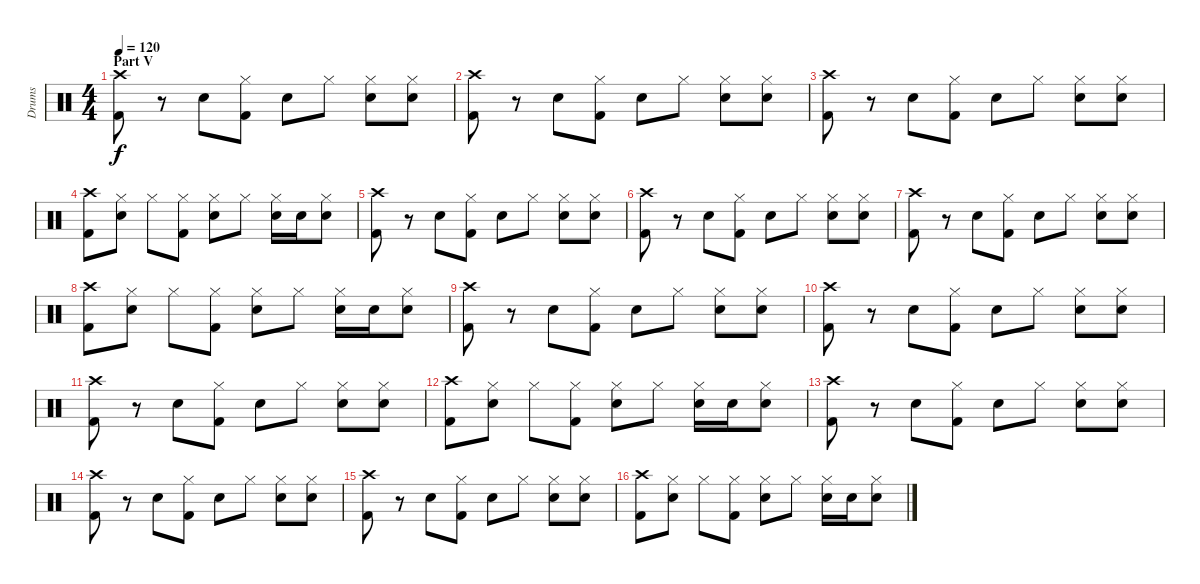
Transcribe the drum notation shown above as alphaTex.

\track ("Drums" "Drums") {instrument percussion}
\staff {score}
\articulation defaults
\ts (4 4)
\section ("" "Part V")
\tempo 120
\clef neutral
\ks c
("Crash high (hit)" "Kick (hit) 2").8{dy f} r.8 "Electric Snare (hit)".8 ("Hi-Hat (closed)" "Kick (hit) 2").8 "Snare (hit) 2".8 "Hi-Hat (closed)".8 ("Hi-Hat (closed)" "Electric Snare (hit)").8 ("Hi-Hat (closed)" "Snare (hit) 2").8 |
("Crash high (hit)" "Kick (hit) 2").8 r.8 "Electric Snare (hit)".8 ("Hi-Hat (closed)" "Kick (hit) 2").8 "Snare (hit) 2".8 "Hi-Hat (closed)".8 ("Hi-Hat (closed)" "Electric Snare (hit)").8 ("Hi-Hat (closed)" "Snare (hit) 2").8 |
("Crash high (hit)" "Kick (hit) 2").8 r.8 "Electric Snare (hit)".8 ("Hi-Hat (closed)" "Kick (hit) 2").8 "Snare (hit) 2".8 "Hi-Hat (closed)".8 ("Hi-Hat (closed)" "Electric Snare (hit)").8 ("Hi-Hat (closed)" "Snare (hit) 2").8 |
("Crash high (hit)" "Kick (hit) 2").8 ("Hi-Hat (closed)" "Snare (hit) 2").8 "Hi-Hat (closed)".8 ("Hi-Hat (closed)" "Kick (hit) 2").8 ("Hi-Hat (closed)" "Snare (hit) 2").8 "Hi-Hat (closed)".8 ("Hi-Hat (closed)" "Snare (hit) 2").16 "Snare (hit) 2".16 ("Hi-Hat (closed)" "Snare (hit) 2").8 |
("Crash high (hit)" "Kick (hit) 2").8 r.8 "Electric Snare (hit)".8 ("Hi-Hat (closed)" "Kick (hit) 2").8 "Snare (hit) 2".8 "Hi-Hat (closed)".8 ("Hi-Hat (closed)" "Electric Snare (hit)").8 ("Hi-Hat (closed)" "Snare (hit) 2").8 |
("Crash high (hit)" "Kick (hit) 2").8 r.8 "Electric Snare (hit)".8 ("Hi-Hat (closed)" "Kick (hit) 2").8 "Snare (hit) 2".8 "Hi-Hat (closed)".8 ("Hi-Hat (closed)" "Electric Snare (hit)").8 ("Hi-Hat (closed)" "Snare (hit) 2").8 |
("Crash high (hit)" "Kick (hit) 2").8 r.8 "Electric Snare (hit)".8 ("Hi-Hat (closed)" "Kick (hit) 2").8 "Snare (hit) 2".8 "Hi-Hat (closed)".8 ("Hi-Hat (closed)" "Electric Snare (hit)").8 ("Hi-Hat (closed)" "Snare (hit) 2").8 |
("Crash high (hit)" "Kick (hit) 2").8 ("Hi-Hat (closed)" "Snare (hit) 2").8 "Hi-Hat (closed)".8 ("Hi-Hat (closed)" "Kick (hit) 2").8 ("Hi-Hat (closed)" "Snare (hit) 2").8 "Hi-Hat (closed)".8 ("Hi-Hat (closed)" "Snare (hit) 2").16 "Snare (hit) 2".16 ("Hi-Hat (closed)" "Snare (hit) 2").8 |
("Crash high (hit)" "Kick (hit) 2").8 r.8 "Electric Snare (hit)".8 ("Hi-Hat (closed)" "Kick (hit) 2").8 "Snare (hit) 2".8 "Hi-Hat (closed)".8 ("Hi-Hat (closed)" "Electric Snare (hit)").8 ("Hi-Hat (closed)" "Snare (hit) 2").8 |
("Crash high (hit)" "Kick (hit) 2").8 r.8 "Electric Snare (hit)".8 ("Hi-Hat (closed)" "Kick (hit) 2").8 "Snare (hit) 2".8 "Hi-Hat (closed)".8 ("Hi-Hat (closed)" "Electric Snare (hit)").8 ("Hi-Hat (closed)" "Snare (hit) 2").8 |
("Crash high (hit)" "Kick (hit) 2").8 r.8 "Electric Snare (hit)".8 ("Hi-Hat (closed)" "Kick (hit) 2").8 "Snare (hit) 2".8 "Hi-Hat (closed)".8 ("Hi-Hat (closed)" "Electric Snare (hit)").8 ("Hi-Hat (closed)" "Snare (hit) 2").8 |
("Crash high (hit)" "Kick (hit) 2").8 ("Hi-Hat (closed)" "Snare (hit) 2").8 "Hi-Hat (closed)".8 ("Hi-Hat (closed)" "Kick (hit) 2").8 ("Hi-Hat (closed)" "Snare (hit) 2").8 "Hi-Hat (closed)".8 ("Hi-Hat (closed)" "Snare (hit) 2").16 "Snare (hit) 2".16 ("Hi-Hat (closed)" "Snare (hit) 2").8 |
("Crash high (hit)" "Kick (hit) 2").8 r.8 "Electric Snare (hit)".8 ("Hi-Hat (closed)" "Kick (hit) 2").8 "Snare (hit) 2".8 "Hi-Hat (closed)".8 ("Hi-Hat (closed)" "Electric Snare (hit)").8 ("Hi-Hat (closed)" "Snare (hit) 2").8 |
("Crash high (hit)" "Kick (hit) 2").8 r.8 "Electric Snare (hit)".8 ("Hi-Hat (closed)" "Kick (hit) 2").8 "Snare (hit) 2".8 "Hi-Hat (closed)".8 ("Hi-Hat (closed)" "Electric Snare (hit)").8 ("Hi-Hat (closed)" "Snare (hit) 2").8 |
("Crash high (hit)" "Kick (hit) 2").8 r.8 "Electric Snare (hit)".8 ("Hi-Hat (closed)" "Kick (hit) 2").8 "Snare (hit) 2".8 "Hi-Hat (closed)".8 ("Hi-Hat (closed)" "Electric Snare (hit)").8 ("Hi-Hat (closed)" "Snare (hit) 2").8 |
("Crash high (hit)" "Kick (hit) 2").8 ("Hi-Hat (closed)" "Snare (hit) 2").8 "Hi-Hat (closed)".8 ("Hi-Hat (closed)" "Kick (hit) 2").8 ("Hi-Hat (closed)" "Snare (hit) 2").8 "Hi-Hat (closed)".8 ("Hi-Hat (closed)" "Snare (hit) 2").16 "Snare (hit) 2".16 ("Hi-Hat (closed)" "Snare (hit) 2").8
